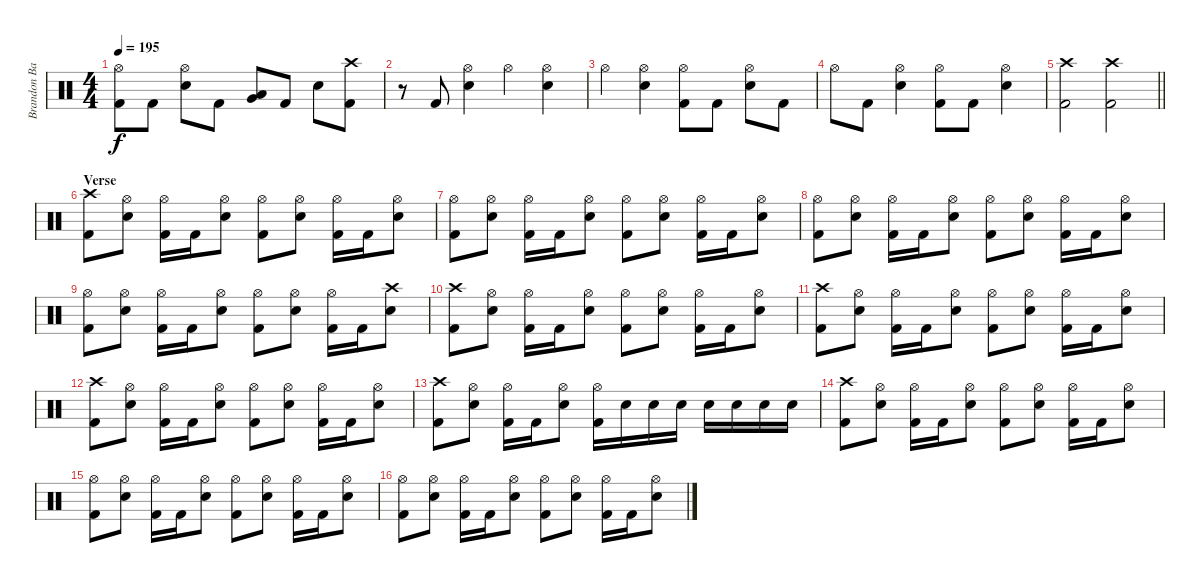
\track ("Brandon Barnes - Drums" "Brandon Ba") {instrument percussion}
\staff {score}
\articulation defaults
\ts (4 4)
\tempo 195
\clef neutral
\ks c
("Kick (hit) 2" "Hi-Hat (open)").8{dy f} "Kick (hit) 2".8 ("Snare (hit) 2" "Hi-Hat (open)").8 "Kick (hit) 2".8 ("Low Tom (hit)" "Very Low Tom (hit)").8 "Kick (hit) 2".8 "Snare (hit) 2".8 ("Crash high (hit)" "Kick (hit) 2").8 |
r.8 "Kick (hit) 2".8 ("Snare (hit) 2" "Hi-Hat (open)").4 "Hi-Hat (open)".4 ("Snare (hit) 2" "Hi-Hat (open)").4 |
"Hi-Hat (open)".4 ("Snare (hit) 2" "Hi-Hat (open)").4 ("Kick (hit) 2" "Hi-Hat (open)").8 "Kick (hit) 2".8 ("Snare (hit) 2" "Hi-Hat (open)").8 "Kick (hit) 2".8 |
"Hi-Hat (open)".8 "Kick (hit) 2".8 ("Snare (hit) 2" "Hi-Hat (open)").4 ("Kick (hit) 2" "Hi-Hat (open)").8 "Kick (hit) 2".8 ("Snare (hit) 2" "Hi-Hat (open)").4 |
\barLineRight lightlight
("Crash high (hit)" "Kick (hit) 2").2 ("Crash high (hit)" "Kick (hit) 2").2 |
\section ("" "Verse")
("Crash high (hit)" "Kick (hit) 2").8 ("Snare (hit) 2" "Hi-Hat (open)").8 ("Kick (hit) 2" "Hi-Hat (open)").16 "Kick (hit) 2".16 ("Snare (hit) 2" "Hi-Hat (open)").8 ("Hi-Hat (open)" "Kick (hit) 2").8 ("Snare (hit) 2" "Hi-Hat (open)").8 ("Kick (hit) 2" "Hi-Hat (open)").16 "Kick (hit) 2".16 ("Snare (hit) 2" "Hi-Hat (open)").8 |
("Hi-Hat (open)" "Kick (hit) 2").8 ("Snare (hit) 2" "Hi-Hat (open)").8 ("Kick (hit) 2" "Hi-Hat (open)").16 "Kick (hit) 2".16 ("Snare (hit) 2" "Hi-Hat (open)").8 ("Hi-Hat (open)" "Kick (hit) 2").8 ("Snare (hit) 2" "Hi-Hat (open)").8 ("Kick (hit) 2" "Hi-Hat (open)").16 "Kick (hit) 2".16 ("Snare (hit) 2" "Hi-Hat (open)").8 |
("Hi-Hat (open)" "Kick (hit) 2").8 ("Snare (hit) 2" "Hi-Hat (open)").8 ("Kick (hit) 2" "Hi-Hat (open)").16 "Kick (hit) 2".16 ("Snare (hit) 2" "Hi-Hat (open)").8 ("Hi-Hat (open)" "Kick (hit) 2").8 ("Snare (hit) 2" "Hi-Hat (open)").8 ("Kick (hit) 2" "Hi-Hat (open)").16 "Kick (hit) 2".16 ("Snare (hit) 2" "Hi-Hat (open)").8 |
("Hi-Hat (open)" "Kick (hit) 2").8 ("Snare (hit) 2" "Hi-Hat (open)").8 ("Kick (hit) 2" "Hi-Hat (open)").16 "Kick (hit) 2".16 ("Snare (hit) 2" "Hi-Hat (open)").8 ("Hi-Hat (open)" "Kick (hit) 2").8 ("Snare (hit) 2" "Hi-Hat (open)").8 ("Kick (hit) 2" "Hi-Hat (open)").16 "Kick (hit) 2".16 ("Snare (hit) 2" "Crash high (hit)").8 |
("Crash high (hit)" "Kick (hit) 2").8 ("Snare (hit) 2" "Hi-Hat (open)").8 ("Kick (hit) 2" "Hi-Hat (open)").16 "Kick (hit) 2".16 ("Snare (hit) 2" "Hi-Hat (open)").8 ("Hi-Hat (open)" "Kick (hit) 2").8 ("Snare (hit) 2" "Hi-Hat (open)").8 ("Kick (hit) 2" "Hi-Hat (open)").16 "Kick (hit) 2".16 ("Snare (hit) 2" "Hi-Hat (open)").8 |
("Crash high (hit)" "Kick (hit) 2").8 ("Snare (hit) 2" "Hi-Hat (open)").8 ("Kick (hit) 2" "Hi-Hat (open)").16 "Kick (hit) 2".16 ("Snare (hit) 2" "Hi-Hat (open)").8 ("Hi-Hat (open)" "Kick (hit) 2").8 ("Snare (hit) 2" "Hi-Hat (open)").8 ("Kick (hit) 2" "Hi-Hat (open)").16 "Kick (hit) 2".16 ("Snare (hit) 2" "Hi-Hat (open)").8 |
("Crash high (hit)" "Kick (hit) 2").8 ("Snare (hit) 2" "Hi-Hat (open)").8 ("Kick (hit) 2" "Hi-Hat (open)").16 "Kick (hit) 2".16 ("Snare (hit) 2" "Hi-Hat (open)").8 ("Hi-Hat (open)" "Kick (hit) 2").8 ("Snare (hit) 2" "Hi-Hat (open)").8 ("Kick (hit) 2" "Hi-Hat (open)").16 "Kick (hit) 2".16 ("Snare (hit) 2" "Hi-Hat (open)").8 |
("Crash high (hit)" "Kick (hit) 2").8 ("Snare (hit) 2" "Hi-Hat (open)").8 ("Kick (hit) 2" "Hi-Hat (open)").16 "Kick (hit) 2".16 ("Snare (hit) 2" "Hi-Hat (open)").8 ("Hi-Hat (open)" "Kick (hit) 2").16 "Snare (hit) 2".16 "Snare (hit) 2".16 "Snare (hit) 2".16 "Snare (hit) 2".16 "Snare (hit) 2".16 "Snare (hit) 2".16 "Snare (hit) 2".16 |
("Crash high (hit)" "Kick (hit) 2").8 ("Snare (hit) 2" "Hi-Hat (open)").8 ("Kick (hit) 2" "Hi-Hat (open)").16 "Kick (hit) 2".16 ("Snare (hit) 2" "Hi-Hat (open)").8 ("Hi-Hat (open)" "Kick (hit) 2").8 ("Snare (hit) 2" "Hi-Hat (open)").8 ("Kick (hit) 2" "Hi-Hat (open)").16 "Kick (hit) 2".16 ("Snare (hit) 2" "Hi-Hat (open)").8 |
("Hi-Hat (open)" "Kick (hit) 2").8 ("Snare (hit) 2" "Hi-Hat (open)").8 ("Kick (hit) 2" "Hi-Hat (open)").16 "Kick (hit) 2".16 ("Snare (hit) 2" "Hi-Hat (open)").8 ("Hi-Hat (open)" "Kick (hit) 2").8 ("Snare (hit) 2" "Hi-Hat (open)").8 ("Kick (hit) 2" "Hi-Hat (open)").16 "Kick (hit) 2".16 ("Snare (hit) 2" "Hi-Hat (open)").8 |
("Hi-Hat (open)" "Kick (hit) 2").8 ("Snare (hit) 2" "Hi-Hat (open)").8 ("Kick (hit) 2" "Hi-Hat (open)").16 "Kick (hit) 2".16 ("Snare (hit) 2" "Hi-Hat (open)").8 ("Hi-Hat (open)" "Kick (hit) 2").8 ("Snare (hit) 2" "Hi-Hat (open)").8 ("Kick (hit) 2" "Hi-Hat (open)").16 "Kick (hit) 2".16 ("Snare (hit) 2" "Hi-Hat (open)").8
